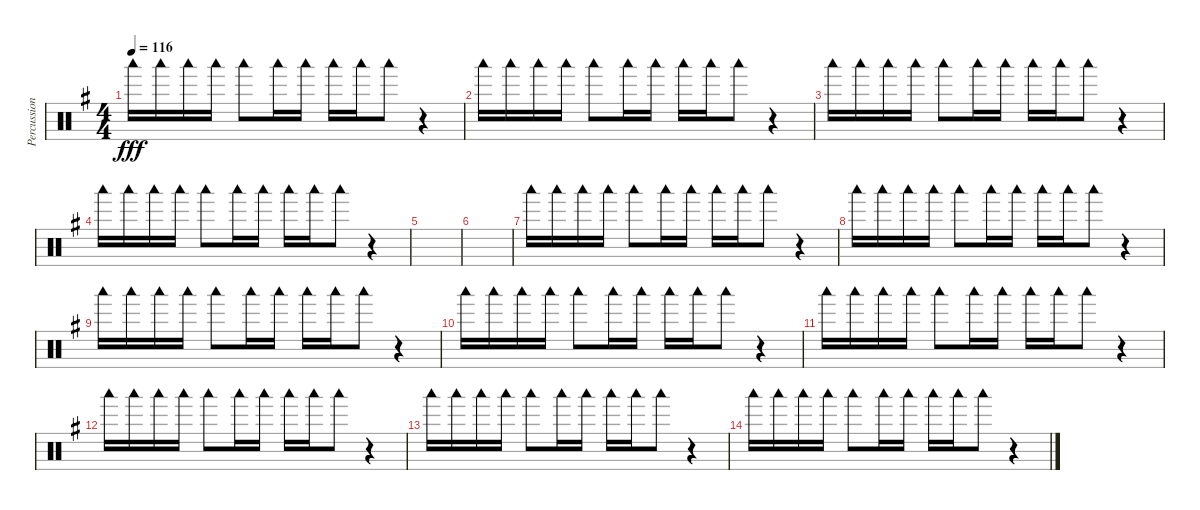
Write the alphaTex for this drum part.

\track ("Percussion" "Percussion") {instrument percussion}
\staff {score}
\articulation defaults
\ts (4 4)
\tempo 116
\clef neutral
\ks g "Woodblock low (hit)".16{dy fff} "Woodblock low (hit)".16 "Woodblock low (hit)".16 "Woodblock low (hit)".16 "Woodblock low (hit)".8 "Woodblock low (hit)".16 "Woodblock low (hit)".16 "Woodblock low (hit)".16 "Woodblock low (hit)".16 "Woodblock low (hit)".8
r.4 |
"Woodblock low (hit)".16 "Woodblock low (hit)".16 "Woodblock low (hit)".16 "Woodblock low (hit)".16 "Woodblock low (hit)".8 "Woodblock low (hit)".16 "Woodblock low (hit)".16 "Woodblock low (hit)".16 "Woodblock low (hit)".16 "Woodblock low (hit)".8 r.4 |
"Woodblock low (hit)".16 "Woodblock low (hit)".16 "Woodblock low (hit)".16 "Woodblock low (hit)".16 "Woodblock low (hit)".8 "Woodblock low (hit)".16 "Woodblock low (hit)".16 "Woodblock low (hit)".16 "Woodblock low (hit)".16 "Woodblock low (hit)".8 r.4 |
"Woodblock low (hit)".16 "Woodblock low (hit)".16 "Woodblock low (hit)".16 "Woodblock low (hit)".16 "Woodblock low (hit)".8 "Woodblock low (hit)".16 "Woodblock low (hit)".16 "Woodblock low (hit)".16 "Woodblock low (hit)".16 "Woodblock low (hit)".8 r.4 |
|
|
"Woodblock low (hit)".16 "Woodblock low (hit)".16 "Woodblock low (hit)".16 "Woodblock low (hit)".16 "Woodblock low (hit)".8 "Woodblock low (hit)".16 "Woodblock low (hit)".16 "Woodblock low (hit)".16 "Woodblock low (hit)".16 "Woodblock low (hit)".8 r.4 |
"Woodblock low (hit)".16 "Woodblock low (hit)".16 "Woodblock low (hit)".16 "Woodblock low (hit)".16 "Woodblock low (hit)".8 "Woodblock low (hit)".16 "Woodblock low (hit)".16 "Woodblock low (hit)".16 "Woodblock low (hit)".16 "Woodblock low (hit)".8 r.4 |
"Woodblock low (hit)".16 "Woodblock low (hit)".16 "Woodblock low (hit)".16 "Woodblock low (hit)".16 "Woodblock low (hit)".8 "Woodblock low (hit)".16 "Woodblock low (hit)".16 "Woodblock low (hit)".16 "Woodblock low (hit)".16 "Woodblock low (hit)".8 r.4 |
"Woodblock low (hit)".16 "Woodblock low (hit)".16 "Woodblock low (hit)".16 "Woodblock low (hit)".16 "Woodblock low (hit)".8 "Woodblock low (hit)".16 "Woodblock low (hit)".16 "Woodblock low (hit)".16 "Woodblock low (hit)".16 "Woodblock low (hit)".8 r.4 |
"Woodblock low (hit)".16 "Woodblock low (hit)".16 "Woodblock low (hit)".16 "Woodblock low (hit)".16 "Woodblock low (hit)".8 "Woodblock low (hit)".16 "Woodblock low (hit)".16 "Woodblock low (hit)".16 "Woodblock low (hit)".16 "Woodblock low (hit)".8 r.4 |
"Woodblock low (hit)".16 "Woodblock low (hit)".16 "Woodblock low (hit)".16 "Woodblock low (hit)".16 "Woodblock low (hit)".8 "Woodblock low (hit)".16 "Woodblock low (hit)".16 "Woodblock low (hit)".16 "Woodblock low (hit)".16 "Woodblock low (hit)".8 r.4 |
"Woodblock low (hit)".16 "Woodblock low (hit)".16 "Woodblock low (hit)".16 "Woodblock low (hit)".16 "Woodblock low (hit)".8 "Woodblock low (hit)".16 "Woodblock low (hit)".16 "Woodblock low (hit)".16 "Woodblock low (hit)".16 "Woodblock low (hit)".8 r.4 |
"Woodblock low (hit)".16 "Woodblock low (hit)".16 "Woodblock low (hit)".16 "Woodblock low (hit)".16 "Woodblock low (hit)".8 "Woodblock low (hit)".16 "Woodblock low (hit)".16 "Woodblock low (hit)".16 "Woodblock low (hit)".16 "Woodblock low (hit)".8 r.4
